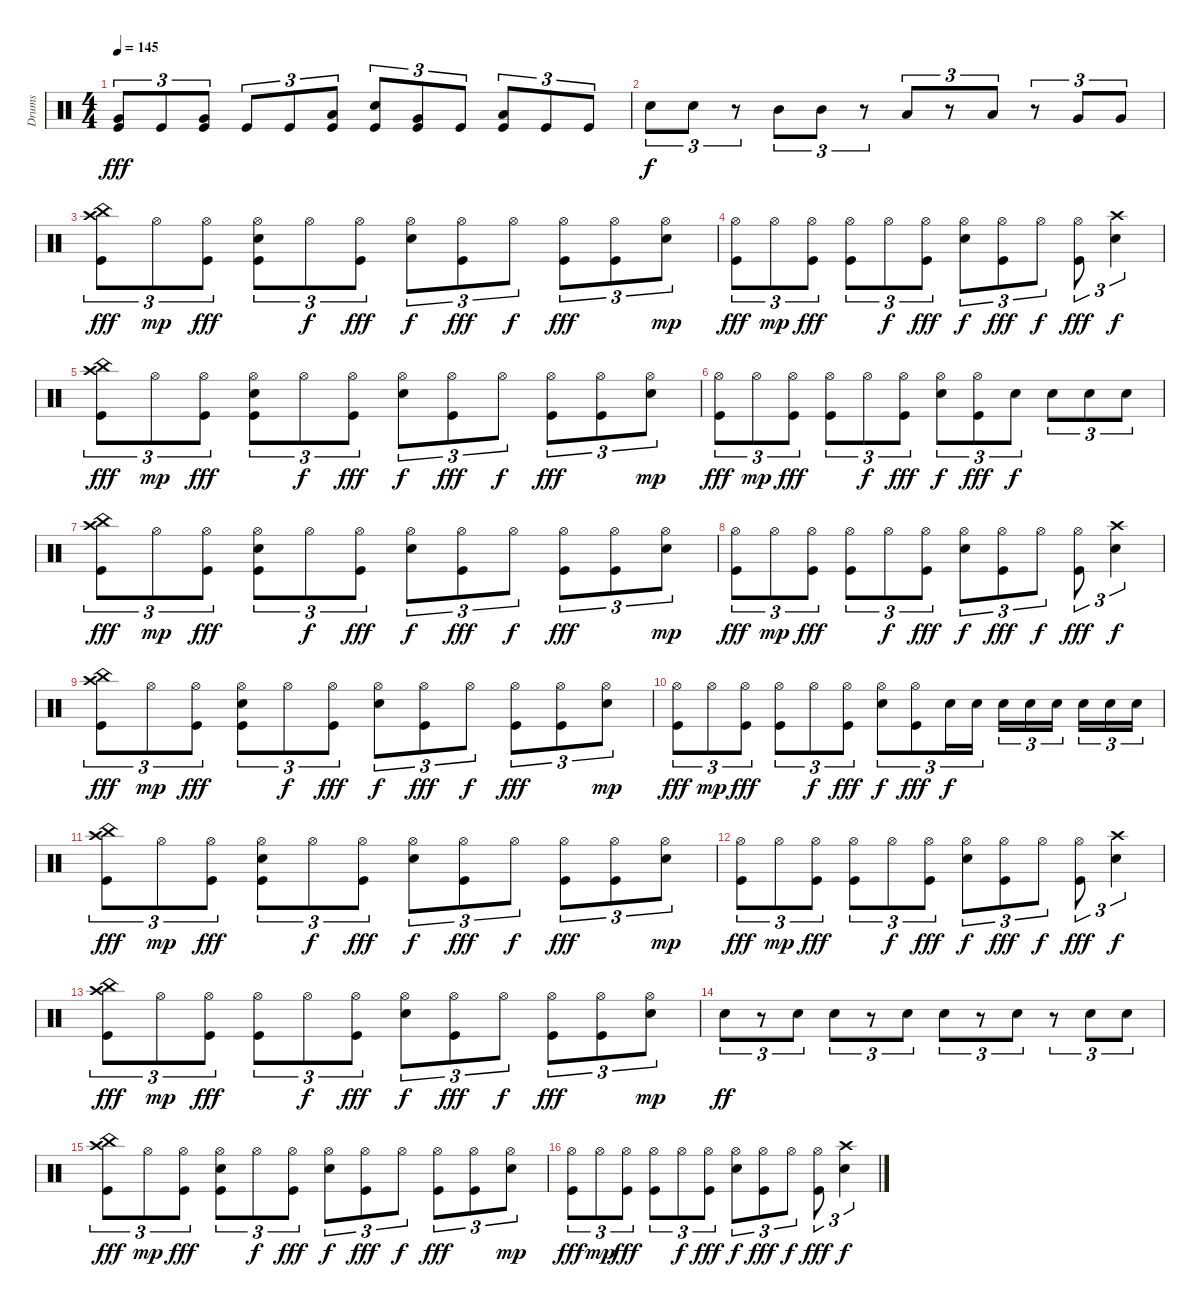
\track ("Drums" "Drums") {instrument percussion}
\staff {score}
\articulation defaults
\ts (4 4)
\tempo 145
\clef neutral
\ks c
("Very Low Tom (hit)" "Kick (hit)").8{tu (3 2) dy fff} "Kick (hit)".8{tu (3 2)} ("Very Low Tom (hit)" "Kick (hit)").8{tu (3 2)} "Kick (hit)".8{tu (3 2)} "Kick (hit)".8{tu (3 2)} ("Low Floor Tom (hit)" "Kick (hit)").8{tu (3 2)} ("Electric Snare (hit)" "Kick (hit)").8{tu (3 2)} ("Very Low Tom (hit)" "Kick (hit)").8{tu (3 2)} "Kick (hit)".8{tu (3 2)} ("Low Floor Tom (hit)" "Kick (hit)").8{tu (3 2)} "Kick (hit)".8{tu (3 2)} "Kick (hit)".8{tu (3 2)} |
"Electric Snare (hit)".8{tu (3 2) dy f} "Electric Snare (hit)".8{tu (3 2)} r.8{tu (3 2)} "Mid Tom (hit)".8{tu (3 2)} "Mid Tom (hit)".8{tu (3 2)} r.8{tu (3 2)} "Low Tom (hit)".8{tu (3 2)} r.8{tu (3 2)} "Low Tom (hit)".8{tu (3 2)} r.8{tu (3 2)} "Very Low Tom (hit)".8{tu (3 2)} "Very Low Tom (hit)".8{tu (3 2)} |
("Crash high (hit)" "China (hit)" "Kick (hit)").8{tu (3 2) dy fff} "Hi-Hat (open)".8{tu (3 2) dy mp} ("Hi-Hat (open)" "Kick (hit)").8{tu (3 2) dy fff} ("Hi-Hat (open)" "Snare (hit)" "Kick (hit)").8{tu (3 2)} "Hi-Hat (open)".8{tu (3 2) dy f} ("Hi-Hat (open)" "Kick (hit)").8{tu (3 2) dy fff} ("Hi-Hat (open)" "Electric Snare (hit)").8{tu (3 2) dy f} ("Hi-Hat (open)" "Kick (hit)").8{tu (3 2) dy fff} "Hi-Hat (open)".8{tu (3 2) dy f} ("Hi-Hat (open)" "Kick (hit)").8{tu (3 2) dy fff} ("Hi-Hat (open)" "Kick (hit)").8{tu (3 2)} ("Hi-Hat (open)" "Electric Snare (hit)").8{tu (3 2) dy mp} |
("Hi-Hat (open)" "Kick (hit)").8{tu (3 2) dy fff} "Hi-Hat (open)".8{tu (3 2) dy mp} ("Hi-Hat (open)" "Kick (hit)").8{tu (3 2) dy fff} ("Hi-Hat (open)" "Kick (hit)").8{tu (3 2)} "Hi-Hat (open)".8{tu (3 2) dy f} ("Hi-Hat (open)" "Kick (hit)").8{tu (3 2) dy fff} ("Hi-Hat (open)" "Electric Snare (hit)").8{tu (3 2) dy f} ("Hi-Hat (open)" "Kick (hit)").8{tu (3 2) dy fff} "Hi-Hat (open)".8{tu (3 2) dy f} ("Hi-Hat (open)" "Kick (hit)").8{tu (3 2) dy fff} ("Crash high (hit)" "Electric Snare (hit)").4{tu (3 2) dy f} |
("Crash high (hit)" "China (hit)" "Kick (hit)").8{tu (3 2) dy fff} "Hi-Hat (open)".8{tu (3 2) dy mp} ("Hi-Hat (open)" "Kick (hit)").8{tu (3 2) dy fff} ("Hi-Hat (open)" "Snare (hit)" "Kick (hit)").8{tu (3 2)} "Hi-Hat (open)".8{tu (3 2) dy f} ("Hi-Hat (open)" "Kick (hit)").8{tu (3 2) dy fff} ("Hi-Hat (open)" "Electric Snare (hit)").8{tu (3 2) dy f} ("Hi-Hat (open)" "Kick (hit)").8{tu (3 2) dy fff} "Hi-Hat (open)".8{tu (3 2) dy f} ("Hi-Hat (open)" "Kick (hit)").8{tu (3 2) dy fff} ("Hi-Hat (open)" "Kick (hit)").8{tu (3 2)} ("Hi-Hat (open)" "Electric Snare (hit)").8{tu (3 2) dy mp} |
("Hi-Hat (open)" "Kick (hit)").8{tu (3 2) dy fff} "Hi-Hat (open)".8{tu (3 2) dy mp} ("Hi-Hat (open)" "Kick (hit)").8{tu (3 2) dy fff} ("Hi-Hat (open)" "Kick (hit)").8{tu (3 2)} "Hi-Hat (open)".8{tu (3 2) dy f} ("Hi-Hat (open)" "Kick (hit)").8{tu (3 2) dy fff} ("Hi-Hat (open)" "Electric Snare (hit)").8{tu (3 2) dy f} ("Hi-Hat (open)" "Kick (hit)").8{tu (3 2) dy fff} "Electric Snare (hit)".8{tu (3 2) dy f} "Electric Snare (hit)".8{tu (3 2)} "Electric Snare (hit)".8{tu (3 2)} "Electric Snare (hit)".8{tu (3 2)} |
("Crash high (hit)" "China (hit)" "Kick (hit)").8{tu (3 2) dy fff} "Hi-Hat (open)".8{tu (3 2) dy mp} ("Hi-Hat (open)" "Kick (hit)").8{tu (3 2) dy fff} ("Hi-Hat (open)" "Snare (hit)" "Kick (hit)").8{tu (3 2)} "Hi-Hat (open)".8{tu (3 2) dy f} ("Hi-Hat (open)" "Kick (hit)").8{tu (3 2) dy fff} ("Hi-Hat (open)" "Electric Snare (hit)").8{tu (3 2) dy f} ("Hi-Hat (open)" "Kick (hit)").8{tu (3 2) dy fff} "Hi-Hat (open)".8{tu (3 2) dy f} ("Hi-Hat (open)" "Kick (hit)").8{tu (3 2) dy fff} ("Hi-Hat (open)" "Kick (hit)").8{tu (3 2)} ("Hi-Hat (open)" "Electric Snare (hit)").8{tu (3 2) dy mp} |
("Hi-Hat (open)" "Kick (hit)").8{tu (3 2) dy fff} "Hi-Hat (open)".8{tu (3 2) dy mp} ("Hi-Hat (open)" "Kick (hit)").8{tu (3 2) dy fff} ("Hi-Hat (open)" "Kick (hit)").8{tu (3 2)} "Hi-Hat (open)".8{tu (3 2) dy f} ("Hi-Hat (open)" "Kick (hit)").8{tu (3 2) dy fff} ("Hi-Hat (open)" "Electric Snare (hit)").8{tu (3 2) dy f} ("Hi-Hat (open)" "Kick (hit)").8{tu (3 2) dy fff} "Hi-Hat (open)".8{tu (3 2) dy f} ("Hi-Hat (open)" "Kick (hit)").8{tu (3 2) dy fff} ("Crash high (hit)" "Electric Snare (hit)").4{tu (3 2) dy f} |
("Crash high (hit)" "China (hit)" "Kick (hit)").8{tu (3 2) dy fff} "Hi-Hat (open)".8{tu (3 2) dy mp} ("Hi-Hat (open)" "Kick (hit)").8{tu (3 2) dy fff} ("Hi-Hat (open)" "Snare (hit)" "Kick (hit)").8{tu (3 2)} "Hi-Hat (open)".8{tu (3 2) dy f} ("Hi-Hat (open)" "Kick (hit)").8{tu (3 2) dy fff} ("Hi-Hat (open)" "Electric Snare (hit)").8{tu (3 2) dy f} ("Hi-Hat (open)" "Kick (hit)").8{tu (3 2) dy fff} "Hi-Hat (open)".8{tu (3 2) dy f} ("Hi-Hat (open)" "Kick (hit)").8{tu (3 2) dy fff} ("Hi-Hat (open)" "Kick (hit)").8{tu (3 2)} ("Hi-Hat (open)" "Electric Snare (hit)").8{tu (3 2) dy mp} |
("Hi-Hat (open)" "Kick (hit)").8{tu (3 2) dy fff} "Hi-Hat (open)".8{tu (3 2) dy mp} ("Hi-Hat (open)" "Kick (hit)").8{tu (3 2) dy fff} ("Hi-Hat (open)" "Kick (hit)").8{tu (3 2)} "Hi-Hat (open)".8{tu (3 2) dy f} ("Hi-Hat (open)" "Kick (hit)").8{tu (3 2) dy fff} ("Hi-Hat (open)" "Electric Snare (hit)").8{tu (3 2) dy f} ("Hi-Hat (open)" "Kick (hit)").8{tu (3 2) dy fff} "Electric Snare (hit)".16{tu (3 2) dy f} "Electric Snare (hit)".16{tu (3 2)} "Electric Snare (hit)".16{tu (3 2)} "Electric Snare (hit)".16{tu (3 2)} "Electric Snare (hit)".16{tu (3 2)} "Electric Snare (hit)".16{tu (3 2)} "Electric Snare (hit)".16{tu (3 2)} "Electric Snare (hit)".16{tu (3 2)} |
("Crash high (hit)" "China (hit)" "Kick (hit)").8{tu (3 2) dy fff} "Hi-Hat (open)".8{tu (3 2) dy mp} ("Hi-Hat (open)" "Kick (hit)").8{tu (3 2) dy fff} ("Hi-Hat (open)" "Snare (hit)" "Kick (hit)").8{tu (3 2)} "Hi-Hat (open)".8{tu (3 2) dy f} ("Hi-Hat (open)" "Kick (hit)").8{tu (3 2) dy fff} ("Hi-Hat (open)" "Electric Snare (hit)").8{tu (3 2) dy f} ("Hi-Hat (open)" "Kick (hit)").8{tu (3 2) dy fff} "Hi-Hat (open)".8{tu (3 2) dy f} ("Hi-Hat (open)" "Kick (hit)").8{tu (3 2) dy fff} ("Hi-Hat (open)" "Kick (hit)").8{tu (3 2)} ("Hi-Hat (open)" "Electric Snare (hit)").8{tu (3 2) dy mp} |
("Hi-Hat (open)" "Kick (hit)").8{tu (3 2) dy fff} "Hi-Hat (open)".8{tu (3 2) dy mp} ("Hi-Hat (open)" "Kick (hit)").8{tu (3 2) dy fff} ("Hi-Hat (open)" "Kick (hit)").8{tu (3 2)} "Hi-Hat (open)".8{tu (3 2) dy f} ("Hi-Hat (open)" "Kick (hit)").8{tu (3 2) dy fff} ("Hi-Hat (open)" "Electric Snare (hit)").8{tu (3 2) dy f} ("Hi-Hat (open)" "Kick (hit)").8{tu (3 2) dy fff} "Hi-Hat (open)".8{tu (3 2) dy f} ("Hi-Hat (open)" "Kick (hit)").8{tu (3 2) dy fff} ("Crash high (hit)" "Electric Snare (hit)").4{tu (3 2) dy f} |
("Crash high (hit)" "China (hit)" "Kick (hit)").8{tu (3 2) dy fff} "Hi-Hat (open)".8{tu (3 2) dy mp} ("Hi-Hat (open)" "Kick (hit)").8{tu (3 2) dy fff} ("Hi-Hat (open)" "Kick (hit)").8{tu (3 2)} "Hi-Hat (open)".8{tu (3 2) dy f} ("Hi-Hat (open)" "Kick (hit)").8{tu (3 2) dy fff} ("Hi-Hat (open)" "Electric Snare (hit)").8{tu (3 2) dy f} ("Hi-Hat (open)" "Kick (hit)").8{tu (3 2) dy fff} "Hi-Hat (open)".8{tu (3 2) dy f} ("Hi-Hat (open)" "Kick (hit)").8{tu (3 2) dy fff} ("Hi-Hat (open)" "Kick (hit)").8{tu (3 2)} ("Hi-Hat (open)" "Electric Snare (hit)").8{tu (3 2) dy mp} |
"Electric Snare (hit)".8{tu (3 2) dy ff} r.8{tu (3 2)} "Electric Snare (hit)".8{tu (3 2)} "Electric Snare (hit)".8{tu (3 2)} r.8{tu (3 2)} "Electric Snare (hit)".8{tu (3 2)} "Electric Snare (hit)".8{tu (3 2)} r.8{tu (3 2)} "Electric Snare (hit)".8{tu (3 2)} r.8{tu (3 2)} "Electric Snare (hit)".8{tu (3 2)} "Electric Snare (hit)".8{tu (3 2)} |
("Crash high (hit)" "China (hit)" "Kick (hit)").8{tu (3 2) dy fff} "Hi-Hat (open)".8{tu (3 2) dy mp} ("Hi-Hat (open)" "Kick (hit)").8{tu (3 2) dy fff} ("Hi-Hat (open)" "Snare (hit)" "Kick (hit)").8{tu (3 2)} "Hi-Hat (open)".8{tu (3 2) dy f} ("Hi-Hat (open)" "Kick (hit)").8{tu (3 2) dy fff} ("Hi-Hat (open)" "Electric Snare (hit)").8{tu (3 2) dy f} ("Hi-Hat (open)" "Kick (hit)").8{tu (3 2) dy fff} "Hi-Hat (open)".8{tu (3 2) dy f} ("Hi-Hat (open)" "Kick (hit)").8{tu (3 2) dy fff} ("Hi-Hat (open)" "Kick (hit)").8{tu (3 2)} ("Hi-Hat (open)" "Electric Snare (hit)").8{tu (3 2) dy mp} |
("Hi-Hat (open)" "Kick (hit)").8{tu (3 2) dy fff} "Hi-Hat (open)".8{tu (3 2) dy mp} ("Hi-Hat (open)" "Kick (hit)").8{tu (3 2) dy fff} ("Hi-Hat (open)" "Kick (hit)").8{tu (3 2)} "Hi-Hat (open)".8{tu (3 2) dy f} ("Hi-Hat (open)" "Kick (hit)").8{tu (3 2) dy fff} ("Hi-Hat (open)" "Electric Snare (hit)").8{tu (3 2) dy f} ("Hi-Hat (open)" "Kick (hit)").8{tu (3 2) dy fff} "Hi-Hat (open)".8{tu (3 2) dy f} ("Hi-Hat (open)" "Kick (hit)").8{tu (3 2) dy fff} ("Crash high (hit)" "Electric Snare (hit)").4{tu (3 2) dy f}
